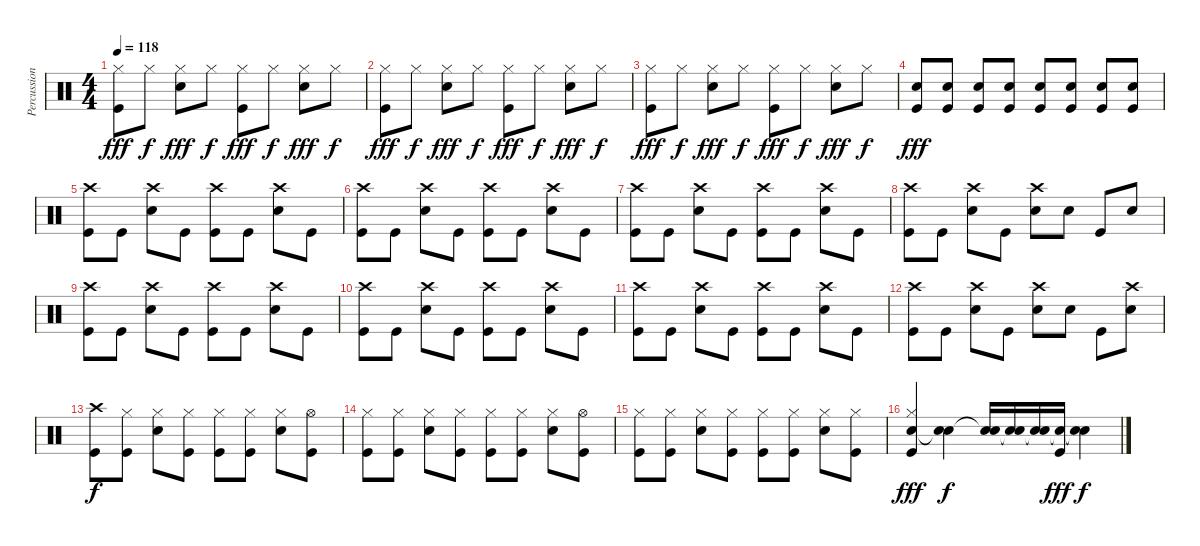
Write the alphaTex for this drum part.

\track ("Percussion" "Percussion") {instrument percussion}
\staff {score}
\articulation defaults
\ts (4 4)
\tempo 118
\clef neutral
\ks c
("Kick (hit)" "Hi-Hat (closed)").8{dy fff} "Hi-Hat (closed)".8{dy f} ("Snare (hit) 2" "Hi-Hat (closed)").8{dy fff} "Hi-Hat (closed)".8{dy f} ("Kick (hit)" "Hi-Hat (closed)").8{dy fff} "Hi-Hat (closed)".8{dy f} ("Snare (hit) 2" "Hi-Hat (closed)").8{dy fff} "Hi-Hat (closed)".8{dy f} |
("Kick (hit)" "Hi-Hat (closed)").8{dy fff} "Hi-Hat (closed)".8{dy f} ("Snare (hit) 2" "Hi-Hat (closed)").8{dy fff} "Hi-Hat (closed)".8{dy f} ("Kick (hit)" "Hi-Hat (closed)").8{dy fff} "Hi-Hat (closed)".8{dy f} ("Snare (hit) 2" "Hi-Hat (closed)").8{dy fff} "Hi-Hat (closed)".8{dy f} |
("Kick (hit)" "Hi-Hat (closed)").8{dy fff} "Hi-Hat (closed)".8{dy f} ("Snare (hit) 2" "Hi-Hat (closed)").8{dy fff} "Hi-Hat (closed)".8{dy f} ("Kick (hit)" "Hi-Hat (closed)").8{dy fff} "Hi-Hat (closed)".8{dy f} ("Snare (hit) 2" "Hi-Hat (closed)").8{dy fff} "Hi-Hat (closed)".8{dy f} |
("Snare (hit) 2" "Kick (hit)").8{dy fff} ("Snare (hit) 2" "Kick (hit)").8 ("Snare (hit) 2" "Kick (hit)").8 ("Snare (hit) 2" "Kick (hit)").8 ("Snare (hit) 2" "Kick (hit)").8 ("Snare (hit) 2" "Kick (hit)").8 ("Snare (hit) 2" "Kick (hit)").8 ("Snare (hit) 2" "Kick (hit)").8 |
("Crash high (hit)" "Kick (hit)").8 "Kick (hit)".8 ("Crash high (hit)" "Snare (hit) 2").8 "Kick (hit)".8 ("Crash high (hit)" "Kick (hit)").8 "Kick (hit)".8 ("Crash high (hit)" "Snare (hit) 2").8 "Kick (hit)".8 |
("Crash high (hit)" "Kick (hit)").8 "Kick (hit)".8 ("Crash high (hit)" "Snare (hit) 2").8 "Kick (hit)".8 ("Crash high (hit)" "Kick (hit)").8 "Kick (hit)".8 ("Crash high (hit)" "Snare (hit) 2").8 "Kick (hit)".8 |
("Crash high (hit)" "Kick (hit)").8 "Kick (hit)".8 ("Crash high (hit)" "Snare (hit) 2").8 "Kick (hit)".8 ("Crash high (hit)" "Kick (hit)").8 "Kick (hit)".8 ("Crash high (hit)" "Snare (hit) 2").8 "Kick (hit)".8 |
("Crash high (hit)" "Kick (hit)").8 "Kick (hit)".8 ("Crash high (hit)" "Snare (hit) 2").8 "Kick (hit)".8 ("Crash high (hit)" "Snare (hit) 2").8 "Snare (hit) 2".8 "Kick (hit)".8 "Snare (hit) 2".8 |
("Crash high (hit)" "Kick (hit)").8 "Kick (hit)".8 ("Crash high (hit)" "Snare (hit) 2").8 "Kick (hit)".8 ("Crash high (hit)" "Kick (hit)").8 "Kick (hit)".8 ("Crash high (hit)" "Snare (hit) 2").8 "Kick (hit)".8 |
("Crash high (hit)" "Kick (hit)").8 "Kick (hit)".8 ("Crash high (hit)" "Snare (hit) 2").8 "Kick (hit)".8 ("Crash high (hit)" "Kick (hit)").8 "Kick (hit)".8 ("Crash high (hit)" "Snare (hit) 2").8 "Kick (hit)".8 |
("Crash high (hit)" "Kick (hit)").8 "Kick (hit)".8 ("Crash high (hit)" "Snare (hit) 2").8 "Kick (hit)".8 ("Crash high (hit)" "Kick (hit)").8 "Kick (hit)".8 ("Crash high (hit)" "Snare (hit) 2").8 "Kick (hit)".8 |
("Crash high (hit)" "Kick (hit)").8 "Kick (hit)".8 ("Crash high (hit)" "Snare (hit) 2").8 "Kick (hit)".8 ("Crash high (hit)" "Snare (hit) 2").8 "Snare (hit) 2".8 "Kick (hit)".8 ("Crash high (hit)" "Snare (hit) 2").8 |
("Kick (hit)" "Crash high (hit)").8{dy f} ("Kick (hit)" "Hi-Hat (closed)").8 ("Snare (hit) 2" "Hi-Hat (closed)").8 ("Kick (hit)" "Hi-Hat (closed)").8 ("Kick (hit)" "Hi-Hat (closed)").8 ("Kick (hit)" "Hi-Hat (closed)").8 ("Snare (hit) 2" "Hi-Hat (closed)").8 ("Kick (hit)" "Hi-Hat (open)").8 |
("Kick (hit)" "Hi-Hat (closed)").8 ("Kick (hit)" "Hi-Hat (closed)").8 ("Snare (hit) 2" "Hi-Hat (closed)").8 ("Kick (hit)" "Hi-Hat (closed)").8 ("Kick (hit)" "Hi-Hat (closed)").8 ("Kick (hit)" "Hi-Hat (closed)").8 ("Snare (hit) 2" "Hi-Hat (closed)").8 ("Kick (hit)" "Hi-Hat (open)").8 |
("Kick (hit)" "Hi-Hat (closed)").8 ("Kick (hit)" "Hi-Hat (closed)").8 ("Snare (hit) 2" "Hi-Hat (closed)").8 ("Kick (hit)" "Hi-Hat (closed)").8 ("Kick (hit)" "Hi-Hat (closed)").8 ("Kick (hit)" "Hi-Hat (closed)").8 ("Snare (hit) 2" "Hi-Hat (closed)").8 ("Kick (hit)" "Hi-Hat (closed)").8 |
("Kick (hit)" "Snare (hit) 2" "Hi-Hat (closed)").4{dy fff} ("Snare (hit) 2" "Snare (hit)"{t}).4{dy f} ("Snare (hit) 2" "Snare (hit)"{t}).16 ("Snare (hit) 2" "Snare (hit)"{t}).16 ("Snare (hit) 2" "Snare (hit)"{t}).16 ("Kick (hit)" "Snare (hit)"{t}).16{dy fff} ("Snare (hit) 2" "Snare (hit)"{t}).4{dy f}
